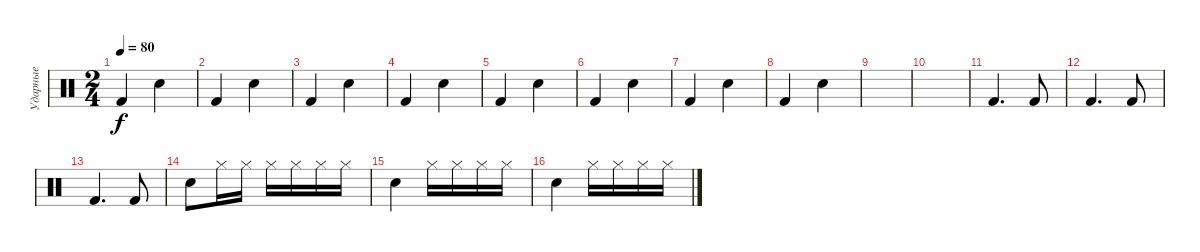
\track ("Ударные" "Ударные") {instrument percussion}
\staff {score}
\articulation defaults
\ts (2 4)
\tempo 80
\clef neutral
\ks c "Kick (hit) 2".4{dy f} "Snare (hit) 2".4
|
"Kick (hit) 2".4 "Snare (hit) 2".4 |
"Kick (hit) 2".4 "Snare (hit) 2".4 |
"Kick (hit) 2".4 "Snare (hit) 2".4 |
"Kick (hit) 2".4 "Snare (hit) 2".4 |
"Kick (hit) 2".4 "Snare (hit) 2".4 |
"Kick (hit) 2".4 "Snare (hit) 2".4 |
"Kick (hit) 2".4 "Snare (hit) 2".4 |
|
|
"Kick (hit) 2".4{d} "Kick (hit) 2".8 |
"Kick (hit) 2".4{d} "Kick (hit) 2".8 |
"Kick (hit) 2".4{d} "Kick (hit) 2".8 |
"Snare (hit) 2".8 "Hi-Hat (closed)".16 "Hi-Hat (closed)".16 "Hi-Hat (closed)".16 "Hi-Hat (closed)".16 "Hi-Hat (closed)".16 "Hi-Hat (closed)".16 |
"Snare (hit) 2".4 "Hi-Hat (closed)".16 "Hi-Hat (closed)".16 "Hi-Hat (closed)".16 "Hi-Hat (closed)".16 |
"Snare (hit) 2".4 "Hi-Hat (closed)".16 "Hi-Hat (closed)".16 "Hi-Hat (closed)".16 "Hi-Hat (closed)".16
